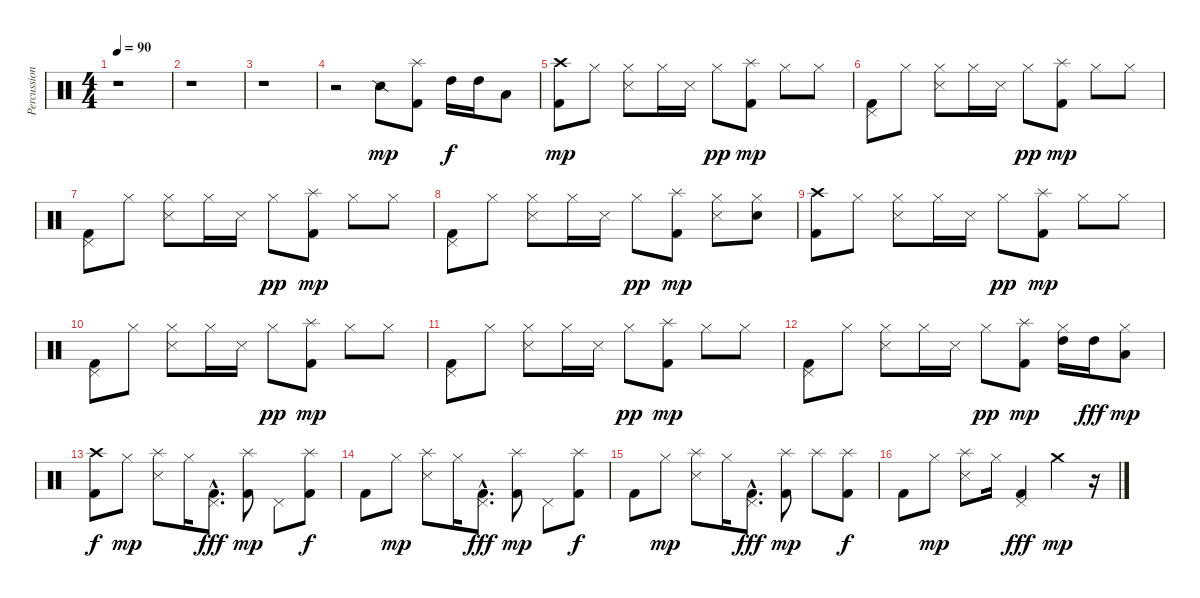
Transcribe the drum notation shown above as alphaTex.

\track ("Percussion" "Percussion") {instrument percussion}
\staff {score}
\articulation defaults
\ts (4 4)
\tempo 90
\clef neutral
\ks c
r.1{dy mp} |
r.1 |
r.1 |
r.2 "Snare (side stick) 2".8 ("Kick (hit) 2" "Splash (hit)").8 "High Tom (hit)".16{dy f} "High Tom (hit)".16 "Low Tom (hit)".8 |
("Kick (hit) 2" "Crash high (hit)").8{dy mp} "Hi-Hat (closed)".8 ("Snare (side stick) 3" "Hi-Hat (closed)").8 "Hi-Hat (closed)".16 "Snare (side stick) 3".16 "Hi-Hat (closed)".8{dy pp} ("Kick (hit) 2" "Splash (hit)").8{dy mp} "Hi-Hat (closed)".8 "Hi-Hat (closed)".8 |
("Kick (hit) 2" "Pedal Hi-Hat (hit)").8 "Hi-Hat (closed)".8 ("Snare (side stick) 3" "Hi-Hat (closed)").8 "Hi-Hat (closed)".16 "Snare (side stick) 3".16 "Hi-Hat (closed)".8{dy pp} ("Kick (hit) 2" "Splash (hit)").8{dy mp} "Hi-Hat (closed)".8 "Hi-Hat (closed)".8 |
("Kick (hit) 2" "Pedal Hi-Hat (hit)").8 "Hi-Hat (closed)".8 ("Snare (side stick) 3" "Hi-Hat (closed)").8 "Hi-Hat (closed)".16 "Snare (side stick) 3".16 "Hi-Hat (closed)".8{dy pp} ("Kick (hit) 2" "Splash (hit)").8{dy mp} "Hi-Hat (closed)".8 "Hi-Hat (closed)".8 |
("Kick (hit) 2" "Pedal Hi-Hat (hit)").8 "Hi-Hat (closed)".8 ("Snare (side stick) 3" "Hi-Hat (closed)").8 "Hi-Hat (closed)".16 "Snare (side stick) 3".16 "Hi-Hat (closed)".8{dy pp} ("Kick (hit) 2" "Splash (hit)").8{dy mp} ("Snare (side stick) 3" "Hi-Hat (closed)").8 ("Electric Snare (hit)" "Hi-Hat (closed)").8 |
("Kick (hit) 2" "Crash high (hit)").8 "Hi-Hat (closed)".8 ("Snare (side stick) 3" "Hi-Hat (closed)").8 "Hi-Hat (closed)".16 "Snare (side stick) 3".16 "Hi-Hat (closed)".8{dy pp} ("Kick (hit) 2" "Splash (hit)").8{dy mp} "Hi-Hat (closed)".8 "Hi-Hat (closed)".8 |
("Kick (hit) 2" "Pedal Hi-Hat (hit)").8 "Hi-Hat (closed)".8 ("Snare (side stick) 3" "Hi-Hat (closed)").8 "Hi-Hat (closed)".16 "Snare (side stick) 3".16 "Hi-Hat (closed)".8{dy pp} ("Kick (hit) 2" "Splash (hit)").8{dy mp} "Hi-Hat (closed)".8 "Hi-Hat (closed)".8 |
("Kick (hit) 2" "Pedal Hi-Hat (hit)").8 "Hi-Hat (closed)".8 ("Snare (side stick) 3" "Hi-Hat (closed)").8 "Hi-Hat (closed)".16 "Snare (side stick) 3".16 "Hi-Hat (closed)".8{dy pp} ("Kick (hit) 2" "Splash (hit)").8{dy mp} "Hi-Hat (closed)".8 "Hi-Hat (closed)".8 |
("Kick (hit) 2" "Pedal Hi-Hat (hit)").8 "Hi-Hat (closed)".8 ("Snare (side stick) 3" "Hi-Hat (closed)").8 "Hi-Hat (closed)".16 "Snare (side stick) 3".16 "Hi-Hat (closed)".8{dy pp} ("Kick (hit) 2" "Splash (hit)").8{dy mp} ("High Tom (hit)" "Hi-Hat (closed)").16 "High Tom (hit)".16{dy fff} ("Low Tom (hit)" "Hi-Hat (closed)").8{dy mp} |
("Kick (hit) 2" "Crash high (hit)").8{dy f} "Hi-Hat (closed)".8{dy mp} ("Snare (side stick) 3" "Splash (hit)").8 "Hi-Hat (closed)".16 ("Kick (hit) 2"{hac} "Pedal Hi-Hat (hit)"{hac}).8{d dy fff} ("Kick (hit) 2" "Splash (hit)").8{dy mp} "Pedal Hi-Hat (hit)".8 ("Kick (hit) 2" "Splash (hit)").8{dy f} |
"Kick (hit) 2".8 "Hi-Hat (closed)".8{dy mp} ("Snare (side stick) 3" "Splash (hit)").8 "Hi-Hat (closed)".16 ("Kick (hit) 2"{hac} "Pedal Hi-Hat (hit)"{hac}).8{d dy fff} ("Kick (hit) 2" "Splash (hit)").8{dy mp} "Pedal Hi-Hat (hit)".8 ("Kick (hit) 2" "Splash (hit)").8{dy f} |
"Kick (hit) 2".8 "Hi-Hat (closed)".8{dy mp} ("Snare (side stick) 3" "Splash (hit)").8 "Hi-Hat (closed)".16 ("Kick (hit) 2"{hac} "Pedal Hi-Hat (hit)"{hac}).8{d dy fff} ("Kick (hit) 2" "Splash (hit)").8{dy mp} "Splash (hit)".8 ("Kick (hit) 2" "Splash (hit)").8{dy f} |
"Kick (hit) 2".8 "Hi-Hat (closed)".8{dy mp} ("Snare (side stick) 3" "Splash (hit)").8 "Hi-Hat (closed)".16 ("Kick (hit) 2" "Pedal Hi-Hat (hit)").4{dy fff} "Crash medium (hit)".4{dy mp} r.16
